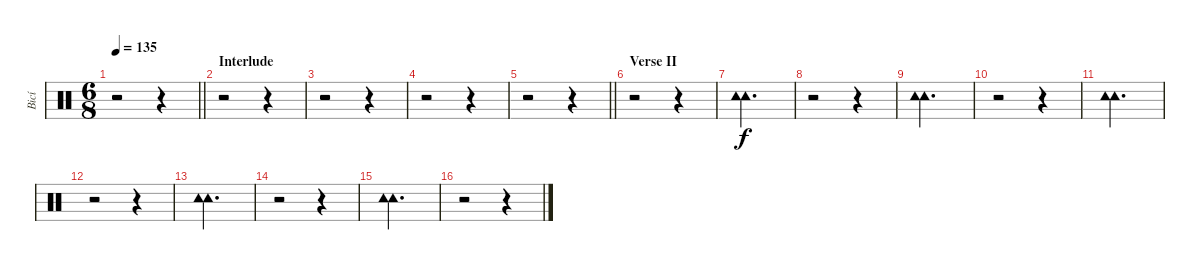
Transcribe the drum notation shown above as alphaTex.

\track ("Bicí" "Bicí") {instrument percussion}
\staff {score}
\articulation defaults
\ts (6 8)
\tempo 135
\clef neutral
\barLineRight lightlight
\ks c
r.2{dy f} r.4 |
\section ("" "Interlude")
r.2 r.4 |
r.2 r.4 |
r.2 r.4 |
\barLineRight lightlight
r.2 r.4 |
\section ("" "Verse II")
r.2 r.4 |
("Tambourine (hit)" "Tambourine (hit)").2{d} |
r.2 r.4 |
("Tambourine (hit)" "Tambourine (hit)").2{d} |
r.2 r.4 |
("Tambourine (hit)" "Tambourine (hit)").2{d} |
r.2 r.4 |
("Tambourine (hit)" "Tambourine (hit)").2{d} |
r.2 r.4 |
("Tambourine (hit)" "Tambourine (hit)").2{d} |
r.2 r.4
